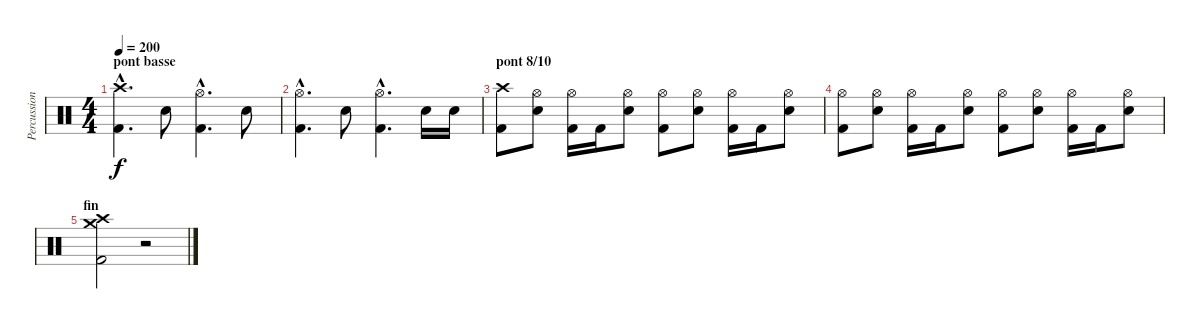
\track ("Percussions" "Percussion") {instrument percussion}
\staff {score}
\articulation defaults
\ts (4 4)
\section ("" "pont basse")
\tempo 200
\clef neutral
\ks c
("Crash high (hit)"{hac} "Kick (hit) 2"{hac}).4{d dy f} "Electric Snare (hit)".8 ("Hi-Hat (open)"{hac} "Kick (hit) 2"{hac}).4{d} "Electric Snare (hit)".8 |
("Hi-Hat (open)"{hac} "Kick (hit) 2"{hac}).4{d} "Electric Snare (hit)".8 ("Hi-Hat (open)"{hac} "Kick (hit) 2"{hac}).4{d} "Electric Snare (hit)".16 "Electric Snare (hit)".16 |
\section ("" "pont 8/10")
("Crash high (hit)" "Kick (hit) 2").8 ("Hi-Hat (open)" "Electric Snare (hit)").8 ("Hi-Hat (open)" "Kick (hit) 2").16 "Kick (hit) 2".16 ("Hi-Hat (open)" "Electric Snare (hit)").8 ("Hi-Hat (open)" "Kick (hit) 2").8 ("Hi-Hat (open)" "Electric Snare (hit)").8 ("Hi-Hat (open)" "Kick (hit) 2").16 "Kick (hit) 2".16 ("Hi-Hat (open)" "Electric Snare (hit)").8 |
("Hi-Hat (open)" "Kick (hit) 2").8 ("Hi-Hat (open)" "Electric Snare (hit)").8 ("Hi-Hat (open)" "Kick (hit) 2").16 "Kick (hit) 2".16 ("Hi-Hat (open)" "Electric Snare (hit)").8 ("Hi-Hat (open)" "Kick (hit) 2").8 ("Hi-Hat (open)" "Electric Snare (hit)").8 ("Hi-Hat (open)" "Kick (hit) 2").16 "Kick (hit) 2".16 ("Hi-Hat (open)" "Electric Snare (hit)").8 |
\section ("" "fin")
("Crash high (hit)" "Crash medium (hit)" "Kick (hit) 2").2 r.2
